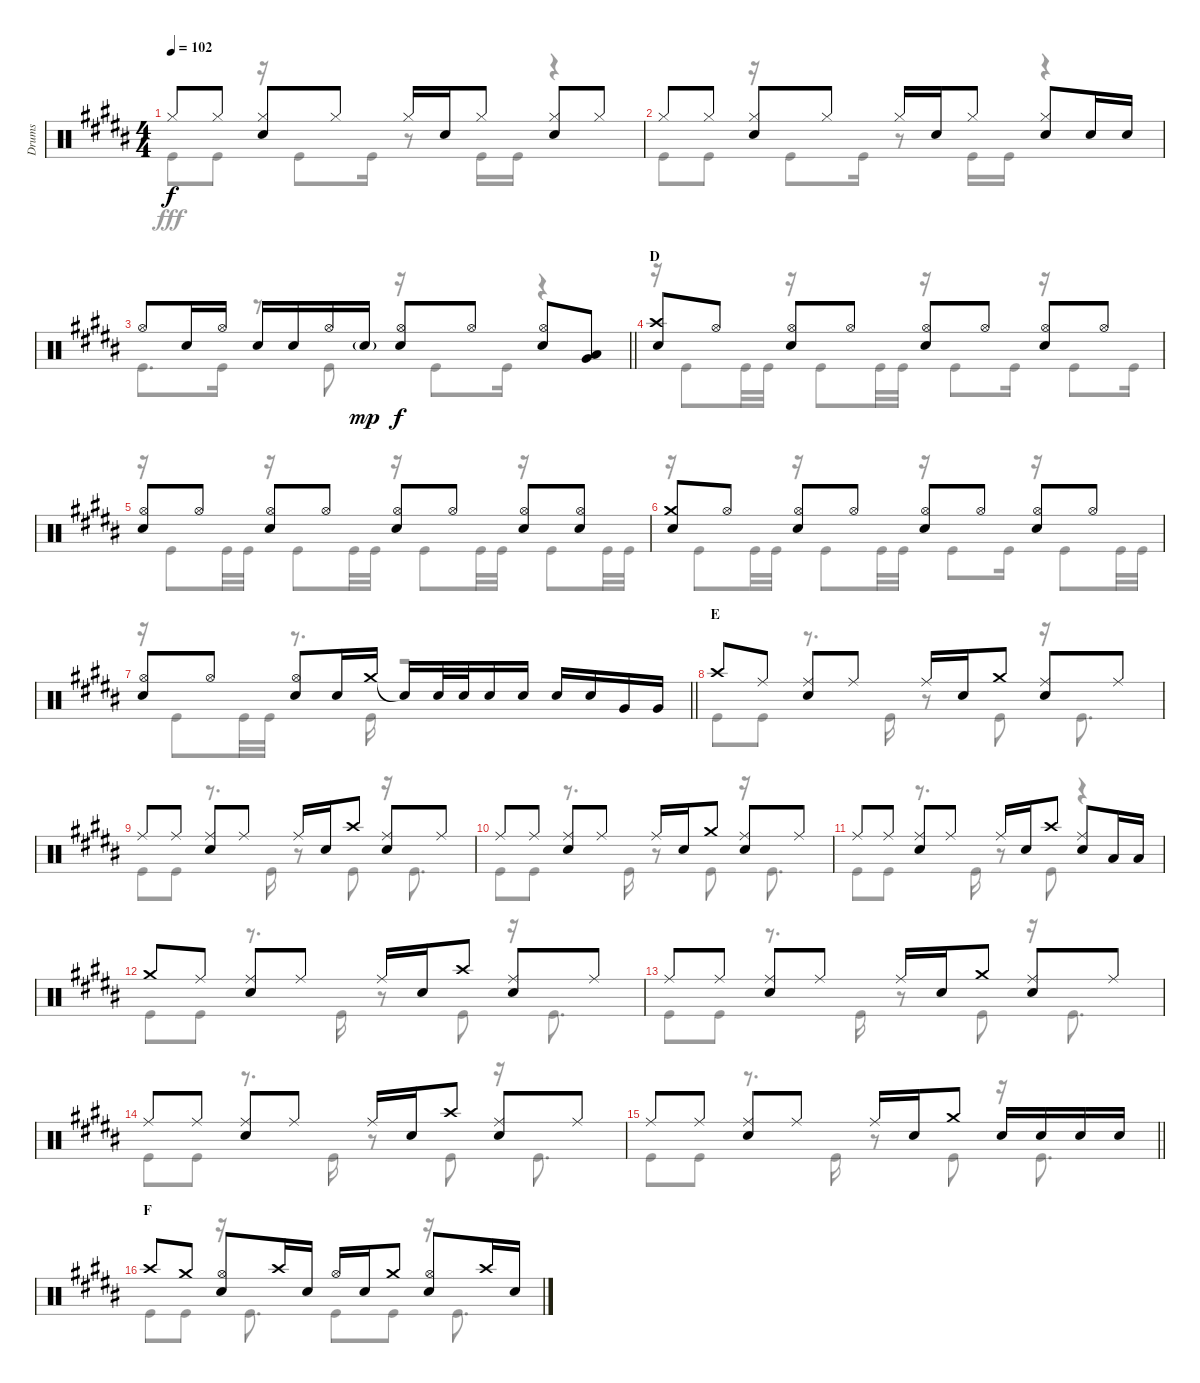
\track ("Drums" "Drums") {instrument percussion}
\staff {score}
\articulation defaults
\voice
\ts (4 4)
\tempo 102
\clef neutral
\ks b "Hi-Hat (closed)".8{dy f} "Hi-Hat (closed)".8
("Hi-Hat (closed)" "Snare (hit) 2").8 "Hi-Hat (closed)".8 "Hi-Hat (closed)".16 "Snare (hit) 2".16 "Hi-Hat (closed)".8 ("Hi-Hat (closed)" "Snare (hit) 2").8 "Hi-Hat (closed)".8 |
"Hi-Hat (closed)".8 "Hi-Hat (closed)".8 ("Hi-Hat (closed)" "Snare (hit) 2").8 "Hi-Hat (closed)".8 "Hi-Hat (closed)".16 "Snare (hit) 2".16 "Hi-Hat (closed)".8 ("Hi-Hat (closed)" "Snare (hit) 2").8 "Snare (hit) 2".16 "Snare (hit) 2".16 |
\barLineRight lightlight "Hi-Hat (open)".8 "Snare (hit) 2".16 "Hi-Hat (open)".16 "Snare (hit) 2".16 "Snare (hit) 2".16 "Hi-Hat (open)".16 "Snare (hit) 2"{g}.16{dy mp}
("Hi-Hat (open)" "Snare (hit) 2").8{dy f} "Hi-Hat (open)".8 ("Hi-Hat (open)" "Snare (hit) 2").8 ("Low Tom (hit)" "Very Low Tom (hit)").8 |
\section ("" "D")
("Crash high (hit)" "Snare (hit) 2").8 "Hi-Hat (open)".8 ("Hi-Hat (open)" "Snare (hit) 2").8 "Hi-Hat (open)".8 ("Hi-Hat (open)" "Snare (hit) 2").8 "Hi-Hat (open)".8 ("Hi-Hat (open)" "Snare (hit) 2").8 "Hi-Hat (open)".8 |
("Hi-Hat (open)" "Snare (hit) 2").8 "Hi-Hat (open)".8 ("Hi-Hat (open)" "Snare (hit) 2").8 "Hi-Hat (open)".8 ("Hi-Hat (open)" "Snare (hit) 2").8 "Hi-Hat (open)".8 ("Hi-Hat (open)" "Snare (hit) 2").8 ("Hi-Hat (open)" "Snare (hit) 2").8 |
("Crash medium (hit)" "Snare (hit) 2").8 "Hi-Hat (open)".8 ("Hi-Hat (open)" "Snare (hit) 2").8 "Hi-Hat (open)".8 ("Hi-Hat (open)" "Snare (hit) 2").8 "Hi-Hat (open)".8 ("Hi-Hat (open)" "Snare (hit) 2").8 "Hi-Hat (open)".8 |
\barLineRight lightlight
("Hi-Hat (open)" "Snare (hit) 2").8 "Hi-Hat (open)".8 ("Hi-Hat (open)" "Snare (hit) 2").8 "Snare (hit) 2".16 "Crash medium (hit)".16 "Snare (hit)"{t}.16 "Snare (hit) 2".32 "Snare (hit) 2".32 "Snare (hit) 2".16 "Snare (hit) 2".16 "Snare (hit) 2".16 "Snare (hit) 2".16 "Very Low Tom (hit)".16 "Very Low Tom (hit)".16 |
\section ("" "E")
"Crash high (hit)".8 "Ride (middle)".8 ("Ride (middle)" "Snare (hit) 2").8 "Ride (middle)".8 "Ride (middle)".16 "Snare (hit) 2".16 "Crash medium (hit)".8 ("Ride (middle)" "Snare (hit) 2").8 "Ride (middle)".8 |
"Ride (middle)".8 "Ride (middle)".8 ("Ride (middle)" "Snare (hit) 2").8 "Ride (middle)".8 "Ride (middle)".16 "Snare (hit) 2".16 "Crash high (hit)".8 ("Ride (middle)" "Snare (hit) 2").8 "Ride (middle)".8 |
"Ride (middle)".8 "Ride (middle)".8 ("Ride (middle)" "Snare (hit) 2").8 "Ride (middle)".8 "Ride (middle)".16 "Snare (hit) 2".16 "Crash medium (hit)".8 ("Ride (middle)" "Snare (hit) 2").8 "Ride (middle)".8 |
"Ride (middle)".8 "Ride (middle)".8 ("Ride (middle)" "Snare (hit) 2").8 "Ride (middle)".8 "Ride (middle)".16 "Snare (hit) 2".16 "Crash high (hit)".8 ("Ride (middle)" "Snare (hit) 2").8 "Low Tom (hit)".16 "Low Tom (hit)".16 |
"Crash medium (hit)".8 "Ride (middle)".8 ("Ride (middle)" "Snare (hit) 2").8 "Ride (middle)".8 "Ride (middle)".16 "Snare (hit) 2".16 "Crash high (hit)".8 ("Ride (middle)" "Snare (hit) 2").8 "Ride (middle)".8 |
"Ride (middle)".8 "Ride (middle)".8 ("Ride (middle)" "Snare (hit) 2").8 "Ride (middle)".8 "Ride (middle)".16 "Snare (hit) 2".16 "Crash medium (hit)".8 ("Ride (middle)" "Snare (hit) 2").8 "Ride (middle)".8 |
"Ride (middle)".8 "Ride (middle)".8 ("Ride (middle)" "Snare (hit) 2").8 "Ride (middle)".8 "Ride (middle)".16 "Snare (hit) 2".16 "Crash high (hit)".8 ("Ride (middle)" "Snare (hit) 2").8 "Ride (middle)".8 |
\barLineRight lightlight "Ride (middle)".8 "Ride (middle)".8
("Ride (middle)" "Snare (hit) 2").8 "Ride (middle)".8 "Ride (middle)".16 "Snare (hit) 2".16 "Crash medium (hit)".8 "Snare (hit) 2".16 "Snare (hit) 2".16 "Snare (hit) 2".16 "Snare (hit) 2".16 |
\section ("" "F")
"Crash high (hit)".8 "Crash medium (hit)".8 ("Hi-Hat (open)" "Snare (hit) 2").8 "Crash high (hit)".16 "Snare (hit) 2".16 "Hi-Hat (open)".16 "Snare (hit) 2".16 "Crash medium (hit)".8 ("Hi-Hat (open)" "Snare (hit) 2").8 "Crash high (hit)".16 "Snare (hit) 2".16
\voice
\clef neutral
\ottava regular
\simile none
\ks b "Kick (hit)".8{dy fff} "Kick (hit)".8
r.16 "Kick (hit)".8 "Kick (hit)".16 r.8 "Kick (hit)".16 "Kick (hit)".16 r.4 |
"Kick (hit)".8 "Kick (hit)".8 r.16 "Kick (hit)".8 "Kick (hit)".16 r.8 "Kick (hit)".16 "Kick (hit)".16 r.4 |
\barLineRight lightlight "Kick (hit)".8{d} "Kick (hit)".16
r.8 "Kick (hit)".8 r.16 "Kick (hit)".8 "Kick (hit)".16 r.4 |
r.16 "Kick (hit)".8 "Kick (hit)".32 "Kick (hit)".32 r.16 "Kick (hit)".8 "Kick (hit)".32 "Kick (hit)".32 r.16 "Kick (hit)".8 "Kick (hit)".16 r.16 "Kick (hit)".8 "Kick (hit)".16 |
r.16 "Kick (hit)".8 "Kick (hit)".32 "Kick (hit)".32 r.16 "Kick (hit)".8 "Kick (hit)".32 "Kick (hit)".32 r.16 "Kick (hit)".8 "Kick (hit)".32 "Kick (hit)".32 r.16 "Kick (hit)".8 "Kick (hit)".32 "Kick (hit)".32 |
r.16 "Kick (hit)".8 "Kick (hit)".32 "Kick (hit)".32 r.16 "Kick (hit)".8 "Kick (hit)".32 "Kick (hit)".32 r.16 "Kick (hit)".8 "Kick (hit)".16 r.16 "Kick (hit)".8 "Kick (hit)".32 "Kick (hit)".32 |
\barLineRight lightlight
r.16 "Kick (hit)".8 "Kick (hit)".32 "Kick (hit)".32 r.8{d} "Kick (hit)".16 r.2 |
"Kick (hit)".8 "Kick (hit)".8 r.8{d} "Kick (hit)".16 r.8 "Kick (hit)".8 r.16 "Kick (hit)".8{d} |
"Kick (hit)".8 "Kick (hit)".8 r.8{d} "Kick (hit)".16 r.8 "Kick (hit)".8 r.16 "Kick (hit)".8{d} |
"Kick (hit)".8 "Kick (hit)".8 r.8{d} "Kick (hit)".16 r.8 "Kick (hit)".8 r.16 "Kick (hit)".8{d} |
"Kick (hit)".8 "Kick (hit)".8 r.8{d} "Kick (hit)".16 r.8 "Kick (hit)".8 r.4 |
"Kick (hit)".8 "Kick (hit)".8 r.8{d} "Kick (hit)".16 r.8 "Kick (hit)".8 r.16 "Kick (hit)".8{d} |
"Kick (hit)".8 "Kick (hit)".8 r.8{d} "Kick (hit)".16 r.8 "Kick (hit)".8 r.16 "Kick (hit)".8{d} |
"Kick (hit)".8 "Kick (hit)".8 r.8{d} "Kick (hit)".16 r.8 "Kick (hit)".8 r.16 "Kick (hit)".8{d} |
\barLineRight lightlight "Kick (hit)".8 "Kick (hit)".8
r.8{d} "Kick (hit)".16 r.8 "Kick (hit)".8 r.16 "Kick (hit)".8{d} |
"Kick (hit)".8 "Kick (hit)".8 r.16 "Kick (hit)".8{d} "Kick (hit)".8 "Kick (hit)".8 r.16 "Kick (hit)".8{d}
